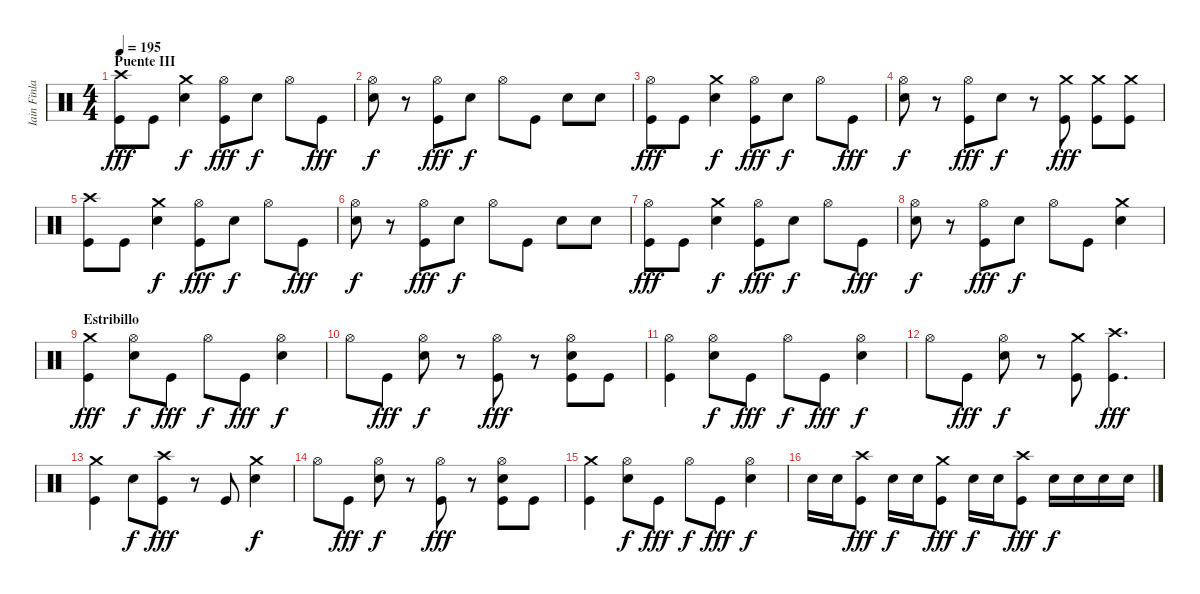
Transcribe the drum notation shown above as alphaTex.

\track ("Iain Finlay (Batería)" "Iain Finla") {instrument percussion}
\staff {score}
\articulation defaults
\ts (4 4)
\section ("" "Puente III")
\tempo 195
\clef neutral
\ks c
("Crash high (hit)" "Kick (hit)").8{dy fff} "Kick (hit)".8 ("Crash medium (hit)" "Electric Snare (hit)").4{dy f} ("Hi-Hat (open)" "Kick (hit)").8{dy fff} "Electric Snare (hit)".8{dy f} "Hi-Hat (open)".8 "Kick (hit)".8{dy fff} |
("Hi-Hat (open)" "Electric Snare (hit)").8{dy f} r.8 ("Hi-Hat (open)" "Kick (hit)").8{dy fff} "Electric Snare (hit)".8{dy f} "Hi-Hat (open)".8 "Kick (hit)".8 "Electric Snare (hit)".8 "Electric Snare (hit)".8 |
("Hi-Hat (open)" "Kick (hit)").8{dy fff} "Kick (hit)".8 ("Crash medium (hit)" "Electric Snare (hit)").4{dy f} ("Hi-Hat (open)" "Kick (hit)").8{dy fff} "Electric Snare (hit)".8{dy f} "Hi-Hat (open)".8 "Kick (hit)".8{dy fff} |
("Hi-Hat (open)" "Electric Snare (hit)").8{dy f} r.8 ("Hi-Hat (open)" "Kick (hit)").8{dy fff} "Electric Snare (hit)".8{dy f} r.8 ("Crash medium (hit)" "Kick (hit)").8{dy fff} ("Crash medium (hit)" "Kick (hit)").8 ("Crash medium (hit)" "Kick (hit)").8 |
("Crash high (hit)" "Kick (hit)").8 "Kick (hit)".8 ("Crash medium (hit)" "Electric Snare (hit)").4{dy f} ("Hi-Hat (open)" "Kick (hit)").8{dy fff} "Electric Snare (hit)".8{dy f} "Hi-Hat (open)".8 "Kick (hit)".8{dy fff} |
("Hi-Hat (open)" "Electric Snare (hit)").8{dy f} r.8 ("Hi-Hat (open)" "Kick (hit)").8{dy fff} "Electric Snare (hit)".8{dy f} "Hi-Hat (open)".8 "Kick (hit)".8 "Electric Snare (hit)".8 "Electric Snare (hit)".8 |
("Hi-Hat (open)" "Kick (hit)").8{dy fff} "Kick (hit)".8 ("Crash medium (hit)" "Electric Snare (hit)").4{dy f} ("Hi-Hat (open)" "Kick (hit)").8{dy fff} "Electric Snare (hit)".8{dy f} "Hi-Hat (open)".8 "Kick (hit)".8{dy fff} |
("Hi-Hat (open)" "Electric Snare (hit)").8{dy f} r.8 ("Hi-Hat (open)" "Kick (hit)").8{dy fff} "Electric Snare (hit)".8{dy f} "Hi-Hat (open)".8 "Kick (hit)".8 ("Crash medium (hit)" "Electric Snare (hit)").4 |
\section ("" "Estribillo")
("Crash medium (hit)" "Kick (hit)").4{dy fff} ("Hi-Hat (open)" "Electric Snare (hit)").8{dy f} "Kick (hit)".8{dy fff} "Hi-Hat (open)".8{dy f} "Kick (hit)".8{dy fff} ("Hi-Hat (open)" "Electric Snare (hit)").4{dy f} |
"Hi-Hat (open)".8 "Kick (hit)".8{dy fff} ("Hi-Hat (open)" "Electric Snare (hit)").8{dy f} r.8 ("Hi-Hat (open)" "Kick (hit)").8{dy fff} r.8 ("Hi-Hat (open)" "Electric Snare (hit)" "Kick (hit)").8 "Kick (hit)".8 |
("Hi-Hat (open)" "Kick (hit)").4 ("Hi-Hat (open)" "Electric Snare (hit)").8{dy f} "Kick (hit)".8{dy fff} "Hi-Hat (open)".8{dy f} "Kick (hit)".8{dy fff} ("Hi-Hat (open)" "Electric Snare (hit)").4{dy f} |
"Hi-Hat (open)".8 "Kick (hit)".8{dy fff} ("Hi-Hat (open)" "Electric Snare (hit)").8{dy f} r.8 ("Crash medium (hit)" "Kick (hit)").8 ("Crash high (hit)" "Kick (hit)").4{d dy fff} |
("Crash medium (hit)" "Kick (hit)").4 "Electric Snare (hit)".8{dy f} ("Crash high (hit)" "Kick (hit)").8{dy fff} r.8 "Kick (hit)".8 ("Crash medium (hit)" "Electric Snare (hit)").4{dy f} |
"Hi-Hat (open)".8 "Kick (hit)".8{dy fff} ("Hi-Hat (open)" "Electric Snare (hit)").8{dy f} r.8 ("Hi-Hat (open)" "Kick (hit)").8{dy fff} r.8 ("Hi-Hat (open)" "Electric Snare (hit)" "Kick (hit)").8 "Kick (hit)".8 |
("Crash medium (hit)" "Kick (hit)").4 ("Hi-Hat (open)" "Electric Snare (hit)").8{dy f} "Kick (hit)".8{dy fff} "Hi-Hat (open)".8{dy f} "Kick (hit)".8{dy fff} ("Hi-Hat (open)" "Electric Snare (hit)").4{dy f} |
"Electric Snare (hit)".16 "Electric Snare (hit)".16 ("Crash high (hit)" "Kick (hit)").8{dy fff} "Electric Snare (hit)".16{dy f} "Electric Snare (hit)".16 ("Crash medium (hit)" "Kick (hit)").8{dy fff} "Electric Snare (hit)".16{dy f} "Electric Snare (hit)".16 ("Crash high (hit)" "Kick (hit)").8{dy fff} "Electric Snare (hit)".16{dy f} "Electric Snare (hit)".16 "Electric Snare (hit)".16 "Electric Snare (hit)".16
